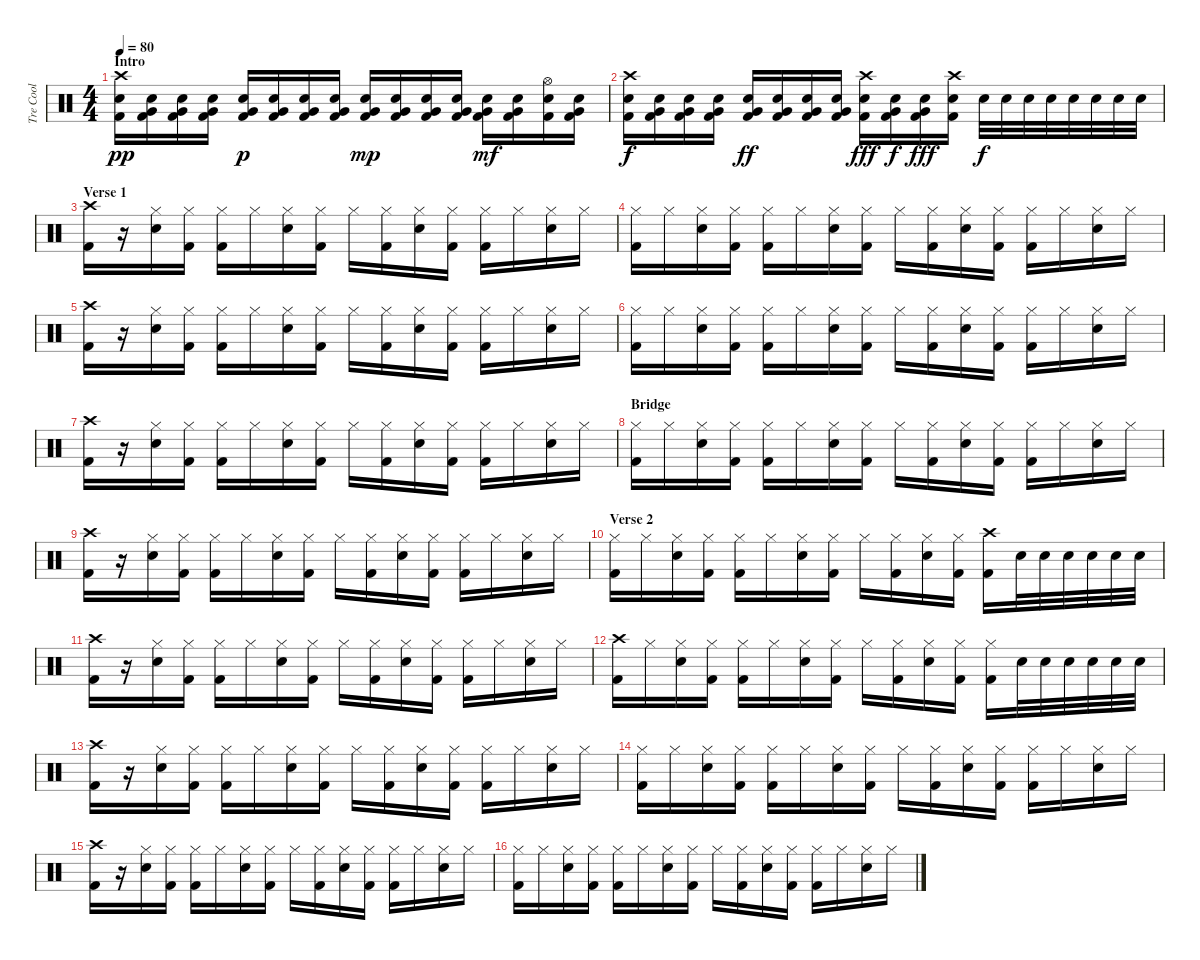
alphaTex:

\track ("Tre Cool" "Tre Cool") {instrument percussion}
\staff {score}
\articulation defaults
\ts (4 4)
\section ("" "Intro")
\tempo 80
\clef neutral
\ks c
("Crash high (hit)" "Electric Snare (hit)" "Kick (hit) 2").16{dy pp} ("Very Low Tom (hit)" "Electric Snare (hit)" "Kick (hit) 2").16 ("Very Low Tom (hit)" "Electric Snare (hit)" "Kick (hit) 2").16 ("Very Low Tom (hit)" "Electric Snare (hit)" "Kick (hit) 2").16 ("Very Low Tom (hit)" "Electric Snare (hit)" "Kick (hit) 2").16{dy p} ("Very Low Tom (hit)" "Electric Snare (hit)" "Kick (hit) 2").16 ("Very Low Tom (hit)" "Electric Snare (hit)" "Kick (hit) 2").16 ("Very Low Tom (hit)" "Electric Snare (hit)" "Kick (hit) 2").16 ("Very Low Tom (hit)" "Electric Snare (hit)" "Kick (hit) 2").16{dy mp} ("Very Low Tom (hit)" "Electric Snare (hit)" "Kick (hit) 2").16 ("Very Low Tom (hit)" "Electric Snare (hit)" "Kick (hit) 2").16 ("Very Low Tom (hit)" "Electric Snare (hit)" "Kick (hit) 2").16 ("Very Low Tom (hit)" "Electric Snare (hit)" "Kick (hit) 2").16{dy mf} ("Very Low Tom (hit)" "Electric Snare (hit)" "Kick (hit) 2").16 ("Hi-Hat (open)" "Electric Snare (hit)" "Kick (hit) 2").16 ("Very Low Tom (hit)" "Electric Snare (hit)" "Kick (hit) 2").16 |
("Crash high (hit)" "Electric Snare (hit)" "Kick (hit) 2").16{dy f} ("Very Low Tom (hit)" "Electric Snare (hit)" "Kick (hit) 2").16 ("Very Low Tom (hit)" "Electric Snare (hit)" "Kick (hit) 2").16 ("Very Low Tom (hit)" "Electric Snare (hit)" "Kick (hit) 2").16 ("Very Low Tom (hit)" "Electric Snare (hit)" "Kick (hit) 2").16{dy ff} ("Very Low Tom (hit)" "Electric Snare (hit)" "Kick (hit) 2").16 ("Very Low Tom (hit)" "Electric Snare (hit)" "Kick (hit) 2").16 ("Very Low Tom (hit)" "Electric Snare (hit)" "Kick (hit) 2").16 ("Crash high (hit)" "Electric Snare (hit)" "Kick (hit) 2").16{dy fff} ("Very Low Tom (hit)" "Electric Snare (hit)" "Kick (hit) 2").16{dy f} ("Very Low Tom (hit)" "Electric Snare (hit)" "Kick (hit) 2").16{dy fff} ("Crash high (hit)" "Electric Snare (hit)" "Kick (hit) 2").16 "Electric Snare (hit)".32{dy f} "Electric Snare (hit)".32 "Electric Snare (hit)".32 "Electric Snare (hit)".32 "Electric Snare (hit)".32 "Electric Snare (hit)".32 "Electric Snare (hit)".32 "Electric Snare (hit)".32 |
\section ("" "Verse 1")
("Crash high (hit)" "Kick (hit) 2").16 r.16 ("Hi-Hat (closed)" "Electric Snare (hit)").16 ("Hi-Hat (closed)" "Kick (hit) 2").16 ("Hi-Hat (closed)" "Kick (hit) 2").16 "Hi-Hat (closed)".16 ("Hi-Hat (closed)" "Electric Snare (hit)").16 ("Hi-Hat (closed)" "Kick (hit) 2").16 "Hi-Hat (closed)".16 ("Hi-Hat (closed)" "Kick (hit) 2").16 ("Hi-Hat (closed)" "Electric Snare (hit)").16 ("Hi-Hat (closed)" "Kick (hit) 2").16 ("Hi-Hat (closed)" "Kick (hit) 2").16 "Hi-Hat (closed)".16 ("Hi-Hat (closed)" "Electric Snare (hit)").16 "Hi-Hat (closed)".16 |
("Hi-Hat (closed)" "Kick (hit) 2").16 "Hi-Hat (closed)".16 ("Hi-Hat (closed)" "Electric Snare (hit)").16 ("Hi-Hat (closed)" "Kick (hit) 2").16 ("Hi-Hat (closed)" "Kick (hit) 2").16 "Hi-Hat (closed)".16 ("Hi-Hat (closed)" "Electric Snare (hit)").16 ("Hi-Hat (closed)" "Kick (hit) 2").16 "Hi-Hat (closed)".16 ("Hi-Hat (closed)" "Kick (hit) 2").16 ("Hi-Hat (closed)" "Electric Snare (hit)").16 ("Hi-Hat (closed)" "Kick (hit) 2").16 ("Hi-Hat (closed)" "Kick (hit) 2").16 "Hi-Hat (closed)".16 ("Hi-Hat (closed)" "Electric Snare (hit)").16 "Hi-Hat (closed)".16 |
("Crash high (hit)" "Kick (hit) 2").16 r.16 ("Hi-Hat (closed)" "Electric Snare (hit)").16 ("Hi-Hat (closed)" "Kick (hit) 2").16 ("Hi-Hat (closed)" "Kick (hit) 2").16 "Hi-Hat (closed)".16 ("Hi-Hat (closed)" "Electric Snare (hit)").16 ("Hi-Hat (closed)" "Kick (hit) 2").16 "Hi-Hat (closed)".16 ("Hi-Hat (closed)" "Kick (hit) 2").16 ("Hi-Hat (closed)" "Electric Snare (hit)").16 ("Hi-Hat (closed)" "Kick (hit) 2").16 ("Hi-Hat (closed)" "Kick (hit) 2").16 "Hi-Hat (closed)".16 ("Hi-Hat (closed)" "Electric Snare (hit)").16 "Hi-Hat (closed)".16 |
("Hi-Hat (closed)" "Kick (hit) 2").16 "Hi-Hat (closed)".16 ("Hi-Hat (closed)" "Electric Snare (hit)").16 ("Hi-Hat (closed)" "Kick (hit) 2").16 ("Hi-Hat (closed)" "Kick (hit) 2").16 "Hi-Hat (closed)".16 ("Hi-Hat (closed)" "Electric Snare (hit)").16 ("Hi-Hat (closed)" "Kick (hit) 2").16 "Hi-Hat (closed)".16 ("Hi-Hat (closed)" "Kick (hit) 2").16 ("Hi-Hat (closed)" "Electric Snare (hit)").16 ("Hi-Hat (closed)" "Kick (hit) 2").16 ("Hi-Hat (closed)" "Kick (hit) 2").16 "Hi-Hat (closed)".16 ("Hi-Hat (closed)" "Electric Snare (hit)").16 "Hi-Hat (closed)".16 |
("Crash high (hit)" "Kick (hit) 2").16 r.16 ("Hi-Hat (closed)" "Electric Snare (hit)").16 ("Hi-Hat (closed)" "Kick (hit) 2").16 ("Hi-Hat (closed)" "Kick (hit) 2").16 "Hi-Hat (closed)".16 ("Hi-Hat (closed)" "Electric Snare (hit)").16 ("Hi-Hat (closed)" "Kick (hit) 2").16 "Hi-Hat (closed)".16 ("Hi-Hat (closed)" "Kick (hit) 2").16 ("Hi-Hat (closed)" "Electric Snare (hit)").16 ("Hi-Hat (closed)" "Kick (hit) 2").16 ("Hi-Hat (closed)" "Kick (hit) 2").16 "Hi-Hat (closed)".16 ("Hi-Hat (closed)" "Electric Snare (hit)").16 "Hi-Hat (closed)".16 |
\section ("" "Bridge")
("Hi-Hat (closed)" "Kick (hit) 2").16 "Hi-Hat (closed)".16 ("Hi-Hat (closed)" "Electric Snare (hit)").16 ("Hi-Hat (closed)" "Kick (hit) 2").16 ("Hi-Hat (closed)" "Kick (hit) 2").16 "Hi-Hat (closed)".16 ("Hi-Hat (closed)" "Electric Snare (hit)").16 ("Hi-Hat (closed)" "Kick (hit) 2").16 "Hi-Hat (closed)".16 ("Hi-Hat (closed)" "Kick (hit) 2").16 ("Hi-Hat (closed)" "Electric Snare (hit)").16 ("Hi-Hat (closed)" "Kick (hit) 2").16 ("Hi-Hat (closed)" "Kick (hit) 2").16 "Hi-Hat (closed)".16 ("Hi-Hat (closed)" "Electric Snare (hit)").16 "Hi-Hat (closed)".16 |
("Crash high (hit)" "Kick (hit) 2").16 r.16 ("Hi-Hat (closed)" "Electric Snare (hit)").16 ("Hi-Hat (closed)" "Kick (hit) 2").16 ("Hi-Hat (closed)" "Kick (hit) 2").16 "Hi-Hat (closed)".16 ("Hi-Hat (closed)" "Electric Snare (hit)").16 ("Hi-Hat (closed)" "Kick (hit) 2").16 "Hi-Hat (closed)".16 ("Hi-Hat (closed)" "Kick (hit) 2").16 ("Hi-Hat (closed)" "Electric Snare (hit)").16 ("Hi-Hat (closed)" "Kick (hit) 2").16 ("Hi-Hat (closed)" "Kick (hit) 2").16 "Hi-Hat (closed)".16 ("Hi-Hat (closed)" "Electric Snare (hit)").16 "Hi-Hat (closed)".16 |
\section ("" "Verse 2")
("Hi-Hat (closed)" "Kick (hit) 2").16 "Hi-Hat (closed)".16 ("Hi-Hat (closed)" "Electric Snare (hit)").16 ("Hi-Hat (closed)" "Kick (hit) 2").16 ("Hi-Hat (closed)" "Kick (hit) 2").16 "Hi-Hat (closed)".16 ("Hi-Hat (closed)" "Electric Snare (hit)").16 ("Hi-Hat (closed)" "Kick (hit) 2").16 "Hi-Hat (closed)".16 ("Hi-Hat (closed)" "Kick (hit) 2").16 ("Hi-Hat (closed)" "Electric Snare (hit)").16 ("Hi-Hat (closed)" "Kick (hit) 2").16 ("Crash high (hit)" "Kick (hit) 2").16 "Electric Snare (hit)".32 "Electric Snare (hit)".32 "Electric Snare (hit)".32 "Electric Snare (hit)".32 "Electric Snare (hit)".32 "Electric Snare (hit)".32 |
("Crash high (hit)" "Kick (hit) 2").16 r.16 ("Hi-Hat (closed)" "Electric Snare (hit)").16 ("Hi-Hat (closed)" "Kick (hit) 2").16 ("Hi-Hat (closed)" "Kick (hit) 2").16 "Hi-Hat (closed)".16 ("Hi-Hat (closed)" "Electric Snare (hit)").16 ("Hi-Hat (closed)" "Kick (hit) 2").16 "Hi-Hat (closed)".16 ("Hi-Hat (closed)" "Kick (hit) 2").16 ("Hi-Hat (closed)" "Electric Snare (hit)").16 ("Hi-Hat (closed)" "Kick (hit) 2").16 ("Hi-Hat (closed)" "Kick (hit) 2").16 "Hi-Hat (closed)".16 ("Hi-Hat (closed)" "Electric Snare (hit)").16 "Hi-Hat (closed)".16 |
("Crash high (hit)" "Kick (hit) 2").16 "Hi-Hat (closed)".16 ("Hi-Hat (closed)" "Electric Snare (hit)").16 ("Hi-Hat (closed)" "Kick (hit) 2").16 ("Hi-Hat (closed)" "Kick (hit) 2").16 "Hi-Hat (closed)".16 ("Hi-Hat (closed)" "Electric Snare (hit)").16 ("Hi-Hat (closed)" "Kick (hit) 2").16 "Hi-Hat (closed)".16 ("Hi-Hat (closed)" "Kick (hit) 2").16 ("Hi-Hat (closed)" "Electric Snare (hit)").16 ("Hi-Hat (closed)" "Kick (hit) 2").16 ("Hi-Hat (closed)" "Kick (hit) 2").16 "Electric Snare (hit)".32 "Electric Snare (hit)".32 "Electric Snare (hit)".32 "Electric Snare (hit)".32 "Electric Snare (hit)".32 "Electric Snare (hit)".32 |
("Crash high (hit)" "Kick (hit) 2").16 r.16 ("Hi-Hat (closed)" "Electric Snare (hit)").16 ("Hi-Hat (closed)" "Kick (hit) 2").16 ("Hi-Hat (closed)" "Kick (hit) 2").16 "Hi-Hat (closed)".16 ("Hi-Hat (closed)" "Electric Snare (hit)").16 ("Hi-Hat (closed)" "Kick (hit) 2").16 "Hi-Hat (closed)".16 ("Hi-Hat (closed)" "Kick (hit) 2").16 ("Hi-Hat (closed)" "Electric Snare (hit)").16 ("Hi-Hat (closed)" "Kick (hit) 2").16 ("Hi-Hat (closed)" "Kick (hit) 2").16 "Hi-Hat (closed)".16 ("Hi-Hat (closed)" "Electric Snare (hit)").16 "Hi-Hat (closed)".16 |
("Hi-Hat (closed)" "Kick (hit) 2").16 "Hi-Hat (closed)".16 ("Hi-Hat (closed)" "Electric Snare (hit)").16 ("Hi-Hat (closed)" "Kick (hit) 2").16 ("Hi-Hat (closed)" "Kick (hit) 2").16 "Hi-Hat (closed)".16 ("Hi-Hat (closed)" "Electric Snare (hit)").16 ("Hi-Hat (closed)" "Kick (hit) 2").16 "Hi-Hat (closed)".16 ("Hi-Hat (closed)" "Kick (hit) 2").16 ("Hi-Hat (closed)" "Electric Snare (hit)").16 ("Hi-Hat (closed)" "Kick (hit) 2").16 ("Hi-Hat (closed)" "Kick (hit) 2").16 "Hi-Hat (closed)".16 ("Hi-Hat (closed)" "Electric Snare (hit)").16 "Hi-Hat (closed)".16 |
("Crash high (hit)" "Kick (hit) 2").16 r.16 ("Hi-Hat (closed)" "Electric Snare (hit)").16 ("Hi-Hat (closed)" "Kick (hit) 2").16 ("Hi-Hat (closed)" "Kick (hit) 2").16 "Hi-Hat (closed)".16 ("Hi-Hat (closed)" "Electric Snare (hit)").16 ("Hi-Hat (closed)" "Kick (hit) 2").16 "Hi-Hat (closed)".16 ("Hi-Hat (closed)" "Kick (hit) 2").16 ("Hi-Hat (closed)" "Electric Snare (hit)").16 ("Hi-Hat (closed)" "Kick (hit) 2").16 ("Hi-Hat (closed)" "Kick (hit) 2").16 "Hi-Hat (closed)".16 ("Hi-Hat (closed)" "Electric Snare (hit)").16 "Hi-Hat (closed)".16 |
("Hi-Hat (closed)" "Kick (hit) 2").16 "Hi-Hat (closed)".16 ("Hi-Hat (closed)" "Electric Snare (hit)").16 ("Hi-Hat (closed)" "Kick (hit) 2").16 ("Hi-Hat (closed)" "Kick (hit) 2").16 "Hi-Hat (closed)".16 ("Hi-Hat (closed)" "Electric Snare (hit)").16 ("Hi-Hat (closed)" "Kick (hit) 2").16 "Hi-Hat (closed)".16 ("Hi-Hat (closed)" "Kick (hit) 2").16 ("Hi-Hat (closed)" "Electric Snare (hit)").16 ("Hi-Hat (closed)" "Kick (hit) 2").16 ("Hi-Hat (closed)" "Kick (hit) 2").16 "Hi-Hat (closed)".16 ("Hi-Hat (closed)" "Electric Snare (hit)").16 "Hi-Hat (closed)".16
